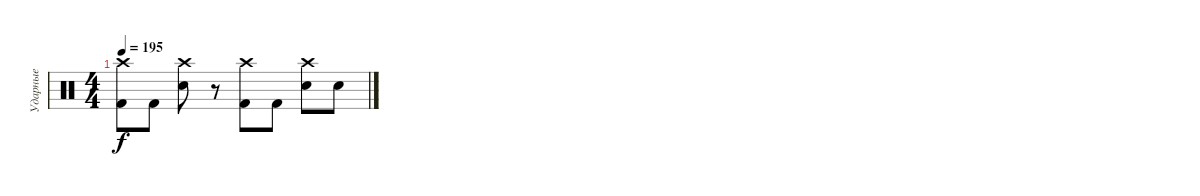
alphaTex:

\track ("Ударные" "Ударные") {instrument percussion}
\staff {score}
\articulation defaults
\ts (4 4)
\tempo 195
\clef neutral
\ks c
("Crash high (hit)" "Kick (hit) 2").8{dy f} "Kick (hit) 2".8 ("Crash high (hit)" "Electric Snare (hit)").8 r.8 ("Crash high (hit)" "Kick (hit) 2").8 "Kick (hit) 2".8 ("Crash high (hit)" "Electric Snare (hit)").8 "Electric Snare (hit)".8
